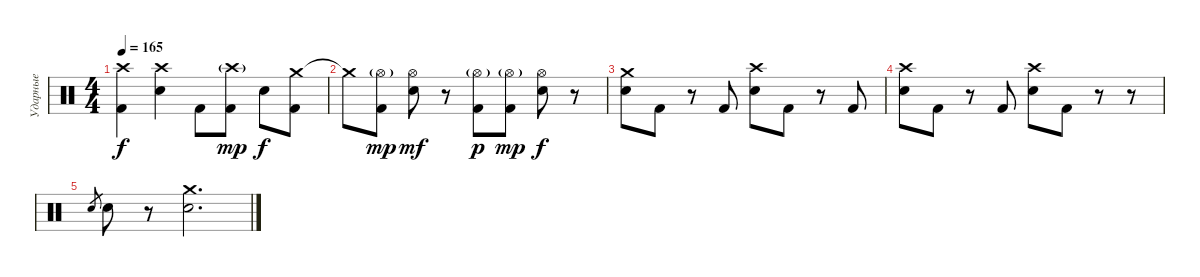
\track ("Ударные" "Ударные") {instrument percussion}
\staff {score}
\articulation defaults
\ts (4 4)
\tempo 165
\clef neutral
\ks c
("Crash high (hit)" "Kick (hit) 2").4{dy f} ("Crash high (hit)" "Snare (hit) 2").4 "Kick (hit) 2".8 ("Crash high (hit)"{g} "Kick (hit) 2").8{dy mp} "Snare (hit) 2".8{dy f} ("Crash medium (hit)" "Kick (hit) 2").8 |
"Crash medium (hit)"{t}.8 ("Hi-Hat (open)"{g} "Kick (hit) 2").8{dy mp} ("Hi-Hat (open)" "Snare (hit) 2").8{dy mf} r.8 ("Hi-Hat (open)"{g} "Kick (hit) 2").8{dy p} ("Hi-Hat (open)"{g} "Kick (hit) 2").8{dy mp} ("Hi-Hat (open)" "Snare (hit) 2").8{dy f} r.8 |
("Crash medium (hit)" "Snare (hit) 2").8 "Kick (hit) 2".8 r.8 "Kick (hit) 2".8 ("Crash high (hit)" "Snare (hit) 2").8 "Kick (hit) 2".8 r.8 "Kick (hit) 2".8 |
("Crash high (hit)" "Snare (hit) 2").8 "Kick (hit) 2".8 r.8 "Kick (hit) 2".8 ("Crash high (hit)" "Snare (hit) 2").8 "Kick (hit) 2".8 r.8 r.8 |
"Snare (hit) 2".8{gr} "Snare (hit) 2".8 r.8 ("Crash medium (hit)" "Snare (hit) 2").2{d}
